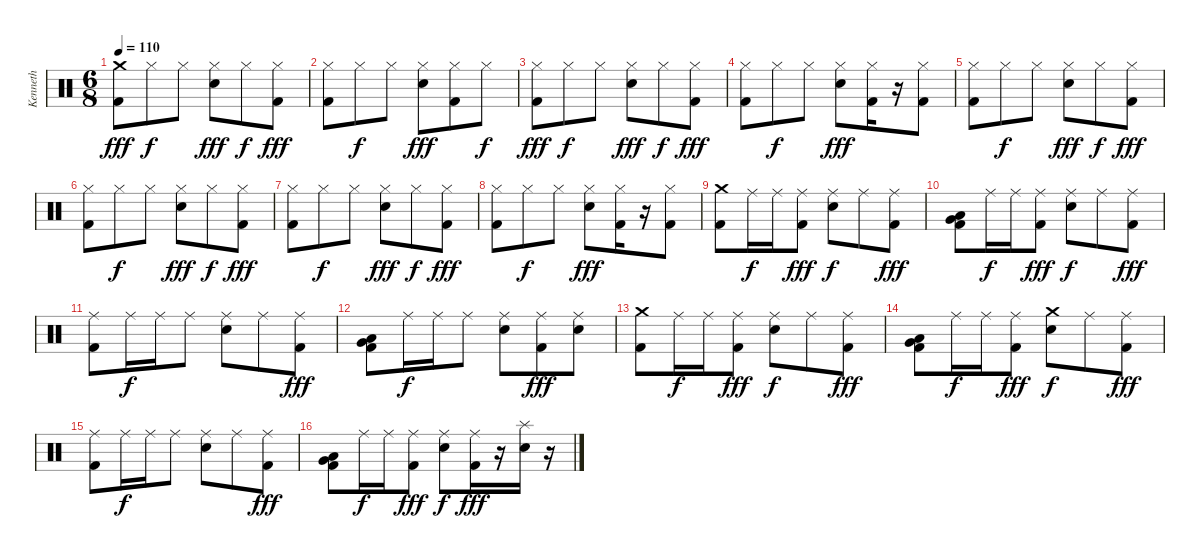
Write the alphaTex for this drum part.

\track ("Kenneth " "Kenneth ") {instrument percussion}
\staff {score}
\articulation defaults
\ts (6 8)
\tempo 110
\clef neutral
\ks c
("Crash medium (hit)" "Kick (hit) 2").8{dy fff} "Hi-Hat (closed)".8{dy f} "Hi-Hat (closed)".8 ("Hi-Hat (closed)" "Electric Snare (hit)").8{dy fff} "Hi-Hat (closed)".8{dy f} ("Hi-Hat (closed)" "Kick (hit) 2").8{dy fff} |
("Hi-Hat (closed)" "Kick (hit) 2").8 "Hi-Hat (closed)".8{dy f} "Hi-Hat (closed)".8 ("Hi-Hat (closed)" "Electric Snare (hit)").8{dy fff} ("Hi-Hat (closed)" "Kick (hit) 2").8 "Hi-Hat (closed)".8{dy f} |
("Hi-Hat (closed)" "Kick (hit) 2").8{dy fff} "Hi-Hat (closed)".8{dy f} "Hi-Hat (closed)".8 ("Hi-Hat (closed)" "Electric Snare (hit)").8{dy fff} "Hi-Hat (closed)".8{dy f} ("Hi-Hat (closed)" "Kick (hit) 2").8{dy fff} |
("Hi-Hat (closed)" "Kick (hit) 2").8 "Hi-Hat (closed)".8{dy f} "Hi-Hat (closed)".8 ("Hi-Hat (closed)" "Electric Snare (hit)").8{dy fff} ("Hi-Hat (closed)" "Kick (hit) 2").16 r.16 ("Hi-Hat (closed)" "Kick (hit) 2").8 |
("Hi-Hat (closed)" "Kick (hit) 2").8 "Hi-Hat (closed)".8{dy f} "Hi-Hat (closed)".8 ("Hi-Hat (closed)" "Electric Snare (hit)").8{dy fff} "Hi-Hat (closed)".8{dy f} ("Hi-Hat (closed)" "Kick (hit) 2").8{dy fff} |
("Hi-Hat (closed)" "Kick (hit) 2").8 "Hi-Hat (closed)".8{dy f} "Hi-Hat (closed)".8 ("Hi-Hat (closed)" "Electric Snare (hit)").8{dy fff} "Hi-Hat (closed)".8{dy f} ("Hi-Hat (closed)" "Kick (hit) 2").8{dy fff} |
("Hi-Hat (closed)" "Kick (hit) 2").8 "Hi-Hat (closed)".8{dy f} "Hi-Hat (closed)".8 ("Hi-Hat (closed)" "Electric Snare (hit)").8{dy fff} "Hi-Hat (closed)".8{dy f} ("Hi-Hat (closed)" "Kick (hit) 2").8{dy fff} |
("Hi-Hat (closed)" "Kick (hit) 2").8 "Hi-Hat (closed)".8{dy f} "Hi-Hat (closed)".8 ("Hi-Hat (closed)" "Electric Snare (hit)").8{dy fff} ("Hi-Hat (closed)" "Kick (hit) 2").16 r.16 ("Hi-Hat (closed)" "Kick (hit) 2").8 |
("Crash medium (hit)" "Kick (hit) 2").8 "Ride (middle)".16{dy f} "Ride (middle)".16 ("Ride (middle)" "Kick (hit) 2").8{dy fff} ("Ride (middle)" "Electric Snare (hit)").8{dy f} "Ride (middle)".8 ("Ride (middle)" "Kick (hit) 2").8{dy fff} |
("Very Low Tom (hit)" "Low Tom (hit)" "Kick (hit) 2").8 "Ride (middle)".16{dy f} "Ride (middle)".16 ("Ride (middle)" "Kick (hit) 2").8{dy fff} ("Ride (middle)" "Electric Snare (hit)").8{dy f} "Ride (middle)".8 ("Ride (middle)" "Kick (hit) 2").8{dy fff} |
("Ride (middle)" "Kick (hit) 2").8 "Ride (middle)".16{dy f} "Ride (middle)".16 "Ride (middle)".8 ("Ride (middle)" "Electric Snare (hit)").8 "Ride (middle)".8 ("Ride (middle)" "Kick (hit) 2").8{dy fff} |
("Very Low Tom (hit)" "Low Tom (hit)" "Kick (hit) 2").8 "Ride (middle)".16{dy f} "Ride (middle)".16 "Ride (middle)".8 ("Ride (middle)" "Electric Snare (hit)").8 ("Ride (middle)" "Kick (hit) 2").8{dy fff} ("Ride (middle)" "Electric Snare (hit)").8 |
("Crash medium (hit)" "Kick (hit) 2").8 "Ride (middle)".16{dy f} "Ride (middle)".16 ("Ride (middle)" "Kick (hit) 2").8{dy fff} ("Ride (middle)" "Electric Snare (hit)").8{dy f} "Ride (middle)".8 ("Ride (middle)" "Kick (hit) 2").8{dy fff} |
("Very Low Tom (hit)" "Low Tom (hit)" "Kick (hit) 2").8 "Ride (middle)".16{dy f} "Ride (middle)".16 ("Ride (middle)" "Kick (hit) 2").8{dy fff} ("Crash medium (hit)" "Electric Snare (hit)").8{dy f} "Ride (middle)".8 ("Ride (middle)" "Kick (hit) 2").8{dy fff} |
("Ride (middle)" "Kick (hit) 2").8 "Ride (middle)".16{dy f} "Ride (middle)".16 "Ride (middle)".8 ("Ride (middle)" "Electric Snare (hit)").8 "Ride (middle)".8 ("Ride (middle)" "Kick (hit) 2").8{dy fff} |
("Very Low Tom (hit)" "Low Tom (hit)" "Kick (hit) 2").8 "Ride (middle)".16{dy f} "Ride (middle)".16 ("Ride (middle)" "Kick (hit) 2").8{dy fff} ("Ride (middle)" "Electric Snare (hit)").8{dy f} ("Ride (middle)" "Kick (hit) 2").16{dy fff} r.16 ("Splash (hit)" "Electric Snare (hit)").16 r.16
